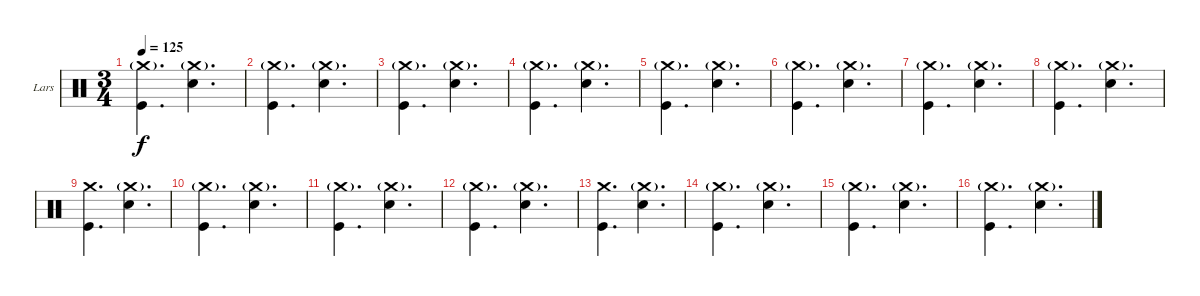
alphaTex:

\bracketExtendMode groupsimilarinstruments
\firstSystemTrackNameOrientation horizontal
\otherSystemsTrackNameOrientation horizontal
\track ("Drumkit" "Lars") {instrument percussion}
\staff {score}
\articulation defaults
\ts (3 4)
\tempo 125
\clef neutral
\ks c
("Crash medium (hit)"{g} "Kick (hit)").4{d dy f} ("Crash medium (hit)"{g} "Snare (hit) 2").4{d} |
("Crash medium (hit)"{g} "Kick (hit)").4{d} ("Crash medium (hit)"{g} "Snare (hit) 2").4{d} |
("Crash medium (hit)"{g} "Kick (hit)").4{d} ("Crash medium (hit)"{g} "Snare (hit) 2").4{d} |
("Crash medium (hit)"{g} "Kick (hit)").4{d} ("Crash medium (hit)"{g} "Snare (hit) 2").4{d} |
("Crash medium (hit)"{g} "Kick (hit)").4{d} ("Crash medium (hit)"{g} "Snare (hit) 2").4{d} |
("Crash medium (hit)"{g} "Kick (hit)").4{d} ("Crash medium (hit)"{g} "Snare (hit) 2").4{d} |
("Crash medium (hit)"{g} "Kick (hit)").4{d} ("Crash medium (hit)"{g} "Snare (hit) 2").4{d} |
("Crash medium (hit)"{g} "Kick (hit)").4{d} ("Crash medium (hit)"{g} "Snare (hit) 2").4{d} |
("Crash medium (hit)" "Kick (hit)").4{d} ("Crash medium (hit)"{g} "Snare (hit) 2").4{d} |
("Crash medium (hit)"{g} "Kick (hit)").4{d} ("Crash medium (hit)"{g} "Snare (hit) 2").4{d} |
("Crash medium (hit)"{g} "Kick (hit)").4{d} ("Crash medium (hit)"{g} "Snare (hit) 2").4{d} |
("Crash medium (hit)"{g} "Kick (hit)").4{d} ("Crash medium (hit)"{g} "Snare (hit) 2").4{d} |
("Crash medium (hit)" "Kick (hit)").4{d} ("Crash medium (hit)"{g} "Snare (hit) 2").4{d} |
("Crash medium (hit)"{g} "Kick (hit)").4{d} ("Crash medium (hit)"{g} "Snare (hit) 2").4{d} |
("Crash medium (hit)"{g} "Kick (hit)").4{d} ("Crash medium (hit)"{g} "Snare (hit) 2").4{d} |
("Crash medium (hit)"{g} "Kick (hit)").4{d} ("Crash medium (hit)"{g} "Snare (hit) 2").4{d}
